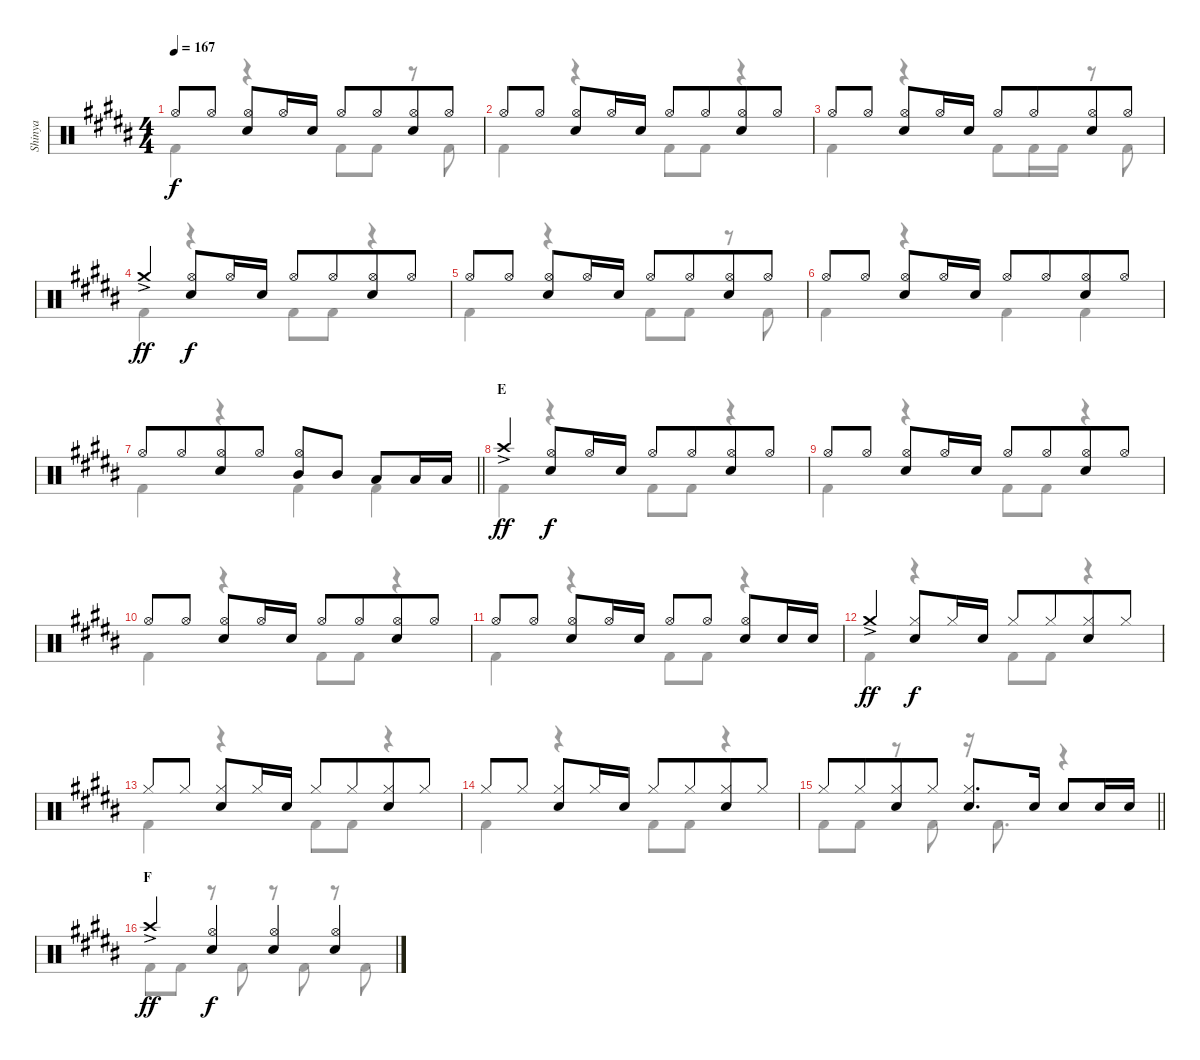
\track ("Shinya" "Shinya") {instrument percussion}
\staff {score}
\articulation defaults
\voice
\ts (4 4)
\tempo 167
\clef neutral
\ks g#minor "Hi-Hat (open)".8{dy f} "Hi-Hat (open)".8
("Hi-Hat (open)" "Snare (hit) 2").8 "Hi-Hat (open)".16 "Snare (hit) 2".16 "Hi-Hat (open)".8 "Hi-Hat (open)".8{beam merge} ("Hi-Hat (open)" "Snare (hit) 2").8 "Hi-Hat (open)".8 |
"Hi-Hat (open)".8 "Hi-Hat (open)".8 ("Hi-Hat (open)" "Snare (hit) 2").8 "Hi-Hat (open)".16 "Snare (hit) 2".16 "Hi-Hat (open)".8 "Hi-Hat (open)".8{beam merge} ("Hi-Hat (open)" "Snare (hit) 2").8 "Hi-Hat (open)".8 |
"Hi-Hat (open)".8 "Hi-Hat (open)".8 ("Hi-Hat (open)" "Snare (hit) 2").8 "Hi-Hat (open)".16 "Snare (hit) 2".16 "Hi-Hat (open)".8 "Hi-Hat (open)".8{beam merge} ("Hi-Hat (open)" "Snare (hit) 2").8 "Hi-Hat (open)".8 |
"Crash medium (hit)"{ac}.4{dy ff} ("Hi-Hat (open)" "Snare (hit) 2").8{dy f} "Hi-Hat (open)".16 "Snare (hit) 2".16 "Hi-Hat (open)".8 "Hi-Hat (open)".8{beam merge} ("Hi-Hat (open)" "Snare (hit) 2").8 "Hi-Hat (open)".8 |
"Hi-Hat (open)".8 "Hi-Hat (open)".8 ("Hi-Hat (open)" "Snare (hit) 2").8 "Hi-Hat (open)".16 "Snare (hit) 2".16 "Hi-Hat (open)".8 "Hi-Hat (open)".8{beam merge} ("Hi-Hat (open)" "Snare (hit) 2").8 "Hi-Hat (open)".8 |
"Hi-Hat (open)".8 "Hi-Hat (open)".8 ("Hi-Hat (open)" "Snare (hit) 2").8 "Hi-Hat (open)".16 "Snare (hit) 2".16 "Hi-Hat (open)".8 "Hi-Hat (open)".8{beam merge} ("Hi-Hat (open)" "Snare (hit) 2").8 "Hi-Hat (open)".8 |
\barLineRight lightlight "Hi-Hat (open)".8 "Hi-Hat (open)".8{beam merge}
("Hi-Hat (open)" "Snare (hit) 2").8 "Hi-Hat (open)".8 ("Hi-Hat (open)" "Mid Tom (hit)").8 "Mid Tom (hit)".8 "Low Tom (hit)".8 "Low Tom (hit)".16 "Low Tom (hit)".16 |
\section ("" "E")
"Crash high (hit)"{ac}.4{dy ff} ("Hi-Hat (open)" "Snare (hit) 2").8{dy f} "Hi-Hat (open)".16 "Snare (hit) 2".16 "Hi-Hat (open)".8 "Hi-Hat (open)".8{beam merge} ("Hi-Hat (open)" "Snare (hit) 2").8 "Hi-Hat (open)".8 |
"Hi-Hat (open)".8 "Hi-Hat (open)".8 ("Hi-Hat (open)" "Snare (hit) 2").8 "Hi-Hat (open)".16 "Snare (hit) 2".16 "Hi-Hat (open)".8 "Hi-Hat (open)".8{beam merge} ("Hi-Hat (open)" "Snare (hit) 2").8 "Hi-Hat (open)".8 |
"Hi-Hat (open)".8 "Hi-Hat (open)".8 ("Hi-Hat (open)" "Snare (hit) 2").8 "Hi-Hat (open)".16 "Snare (hit) 2".16 "Hi-Hat (open)".8 "Hi-Hat (open)".8{beam merge} ("Hi-Hat (open)" "Snare (hit) 2").8 "Hi-Hat (open)".8 |
"Hi-Hat (open)".8 "Hi-Hat (open)".8 ("Hi-Hat (open)" "Snare (hit) 2").8 "Hi-Hat (open)".16 "Snare (hit) 2".16 "Hi-Hat (open)".8 "Hi-Hat (open)".8{beam split} ("Hi-Hat (open)" "Snare (hit) 2").8 "Snare (hit) 2".16 "Snare (hit) 2".16 |
"Crash medium (hit)"{ac}.4{dy ff} ("Hi-Hat (closed)" "Snare (hit) 2").8{dy f} "Hi-Hat (closed)".16 "Snare (hit) 2".16 "Hi-Hat (closed)".8 "Hi-Hat (closed)".8{beam merge} ("Hi-Hat (closed)" "Snare (hit) 2").8 "Hi-Hat (closed)".8 |
"Hi-Hat (closed)".8 "Hi-Hat (closed)".8 ("Hi-Hat (closed)" "Snare (hit) 2").8 "Hi-Hat (closed)".16 "Snare (hit) 2".16 "Hi-Hat (closed)".8 "Hi-Hat (closed)".8{beam merge} ("Hi-Hat (closed)" "Snare (hit) 2").8 "Hi-Hat (closed)".8 |
"Hi-Hat (closed)".8 "Hi-Hat (closed)".8 ("Hi-Hat (closed)" "Snare (hit) 2").8 "Hi-Hat (closed)".16 "Snare (hit) 2".16 "Hi-Hat (closed)".8 "Hi-Hat (closed)".8{beam merge} ("Hi-Hat (closed)" "Snare (hit) 2").8 "Hi-Hat (closed)".8 |
\barLineRight lightlight "Hi-Hat (closed)".8 "Hi-Hat (closed)".8{beam merge}
("Hi-Hat (closed)" "Snare (hit) 2").8 "Hi-Hat (closed)".8 ("Hi-Hat (closed)" "Snare (hit) 2").8{d} "Snare (hit) 2".16 "Snare (hit) 2".8 "Snare (hit) 2".16 "Snare (hit) 2".16 |
\section ("" "F")
"Crash high (hit)"{ac}.4{dy ff} ("Hi-Hat (open)" "Snare (hit) 2").4{dy f} ("Hi-Hat (open)" "Snare (hit) 2").4 ("Hi-Hat (open)" "Snare (hit) 2").4
\voice
\clef neutral
\ottava regular
\simile none
\ks g#minor "Kick (hit) 2".4{dy f}
r.4 "Kick (hit) 2".8 "Kick (hit) 2".8 r.8 "Kick (hit) 2".8 |
"Kick (hit) 2".4 r.4 "Kick (hit) 2".8 "Kick (hit) 2".8 r.4 |
"Kick (hit) 2".4 r.4 "Kick (hit) 2".8 "Kick (hit) 2".16 "Kick (hit) 2".16 r.8 "Kick (hit) 2".8 |
"Kick (hit) 2".4 r.4 "Kick (hit) 2".8 "Kick (hit) 2".8 r.4 |
"Kick (hit) 2".4 r.4 "Kick (hit) 2".8 "Kick (hit) 2".8 r.8 "Kick (hit) 2".8 |
"Kick (hit) 2".4 r.4 "Kick (hit) 2".4 "Kick (hit) 2".4 |
\barLineRight lightlight "Kick (hit) 2".4
r.4 "Kick (hit) 2".4 "Kick (hit) 2".4 |
"Kick (hit) 2".4 r.4 "Kick (hit) 2".8 "Kick (hit) 2".8 r.4 |
"Kick (hit) 2".4 r.4 "Kick (hit) 2".8 "Kick (hit) 2".8 r.4 |
"Kick (hit) 2".4 r.4 "Kick (hit) 2".8 "Kick (hit) 2".8 r.4 |
"Kick (hit) 2".4 r.4 "Kick (hit) 2".8 "Kick (hit) 2".8 r.4 |
"Kick (hit) 2".4 r.4 "Kick (hit) 2".8 "Kick (hit) 2".8 r.4 |
"Kick (hit) 2".4 r.4 "Kick (hit) 2".8 "Kick (hit) 2".8 r.4 |
"Kick (hit) 2".4 r.4 "Kick (hit) 2".8 "Kick (hit) 2".8 r.4 |
\barLineRight lightlight "Kick (hit) 2".8 "Kick (hit) 2".8
r.8 "Kick (hit) 2".8 r.16 "Kick (hit) 2".8{d} r.4 |
"Kick (hit) 2".8 "Kick (hit) 2".8 r.8 "Kick (hit) 2".8 r.8 "Kick (hit) 2".8 r.8 "Kick (hit) 2".8
